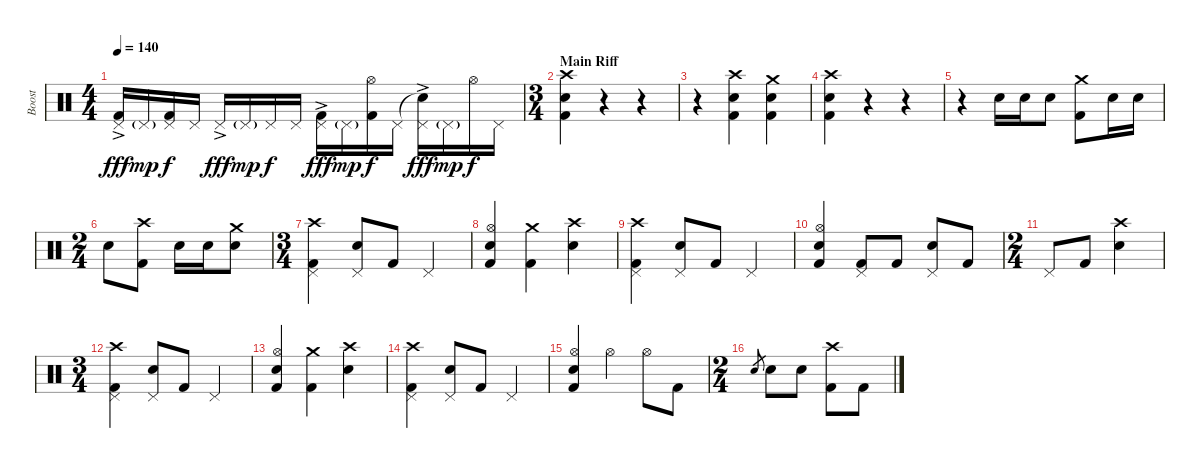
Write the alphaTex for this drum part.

\track ("Boost" "Boost") {instrument percussion}
\staff {score}
\articulation defaults
\ts (4 4)
\tempo 140
\clef neutral
\ks c
("Pedal Hi-Hat (hit)"{ac} "Kick (hit) 2").16{dy fff} "Pedal Hi-Hat (hit)"{g}.16{dy mp} ("Pedal Hi-Hat (hit)" "Kick (hit) 2").16{dy f} "Pedal Hi-Hat (hit)".16 "Pedal Hi-Hat (hit)"{ac}.16{dy fff} "Pedal Hi-Hat (hit)"{g}.16{dy mp} "Pedal Hi-Hat (hit)".16{dy f} "Pedal Hi-Hat (hit)".16 ("Pedal Hi-Hat (hit)"{ac} "Kick (hit) 2").16{dy fff} "Pedal Hi-Hat (hit)"{g}.16{dy mp} ("Hi-Hat (open)" "Kick (hit) 2").16{dy f} "Pedal Hi-Hat (hit)".16 ("Snare (hit)"{t} "Pedal Hi-Hat (hit)"{ac}).16{dy fff} "Pedal Hi-Hat (hit)"{g}.16{dy mp} "Hi-Hat (open)".16{dy f} "Pedal Hi-Hat (hit)".16 |
\ts (3 4)
\section ("" "Main Riff")
("Crash high (hit)" "Snare (hit) 2" "Kick (hit) 2").4 r.4 r.4 |
r.4 ("Crash high (hit)" "Snare (hit) 2" "Kick (hit) 2").4 ("Crash medium (hit)" "Snare (hit) 2" "Kick (hit) 2").4 |
("Crash high (hit)" "Snare (hit) 2" "Kick (hit) 2").4 r.4 r.4 |
r.4 "Snare (hit) 2".16 "Snare (hit) 2".16 "Snare (hit) 2".8 ("Crash medium (hit)" "Kick (hit) 2").8 "Snare (hit) 2".16 "Snare (hit) 2".16 |
\ts (2 4)
"Snare (hit) 2".8 ("Crash high (hit)" "Kick (hit) 2").8 "Snare (hit) 2".16 "Snare (hit) 2".16 ("Crash medium (hit)" "Snare (hit) 2").8 |
\ts (3 4)
("Crash high (hit)" "Pedal Hi-Hat (hit)" "Kick (hit) 2").4 ("Pedal Hi-Hat (hit)" "Snare (hit) 2").8 "Kick (hit) 2".8 "Pedal Hi-Hat (hit)".4 |
("Hi-Hat (open)" "Snare (hit) 2" "Kick (hit) 2").4 ("Crash medium (hit)" "Kick (hit) 2").4 ("Crash high (hit)" "Snare (hit) 2").4 |
("Crash high (hit)" "Pedal Hi-Hat (hit)" "Kick (hit) 2").4 ("Pedal Hi-Hat (hit)" "Snare (hit) 2").8 "Kick (hit) 2".8 "Pedal Hi-Hat (hit)".4 |
("Hi-Hat (open)" "Snare (hit) 2" "Kick (hit) 2").4 ("Pedal Hi-Hat (hit)" "Kick (hit) 2").8 "Kick (hit) 2".8 ("Pedal Hi-Hat (hit)" "Snare (hit) 2").8 "Kick (hit) 2".8 |
\ts (2 4)
"Pedal Hi-Hat (hit)".8 "Kick (hit) 2".8 ("Crash high (hit)" "Snare (hit) 2").4 |
\ts (3 4)
("Crash high (hit)" "Pedal Hi-Hat (hit)" "Kick (hit) 2").4 ("Pedal Hi-Hat (hit)" "Snare (hit) 2").8 "Kick (hit) 2".8 "Pedal Hi-Hat (hit)".4 |
("Hi-Hat (open)" "Snare (hit) 2" "Kick (hit) 2").4 ("Crash medium (hit)" "Kick (hit) 2").4 ("Crash high (hit)" "Snare (hit) 2").4 |
("Crash high (hit)" "Pedal Hi-Hat (hit)" "Kick (hit) 2").4 ("Pedal Hi-Hat (hit)" "Snare (hit) 2").8 "Kick (hit) 2".8 "Pedal Hi-Hat (hit)".4 |
("Hi-Hat (open)" "Snare (hit) 2" "Kick (hit) 2").4 "Hi-Hat (open)".4 "Hi-Hat (open)".8 "Kick (hit) 2".8 |
\ts (2 4)
"Snare (hit) 2".8{gr} "Snare (hit) 2".8 "Snare (hit) 2".8 ("Crash high (hit)" "Kick (hit) 2").8 "Kick (hit) 2".8
